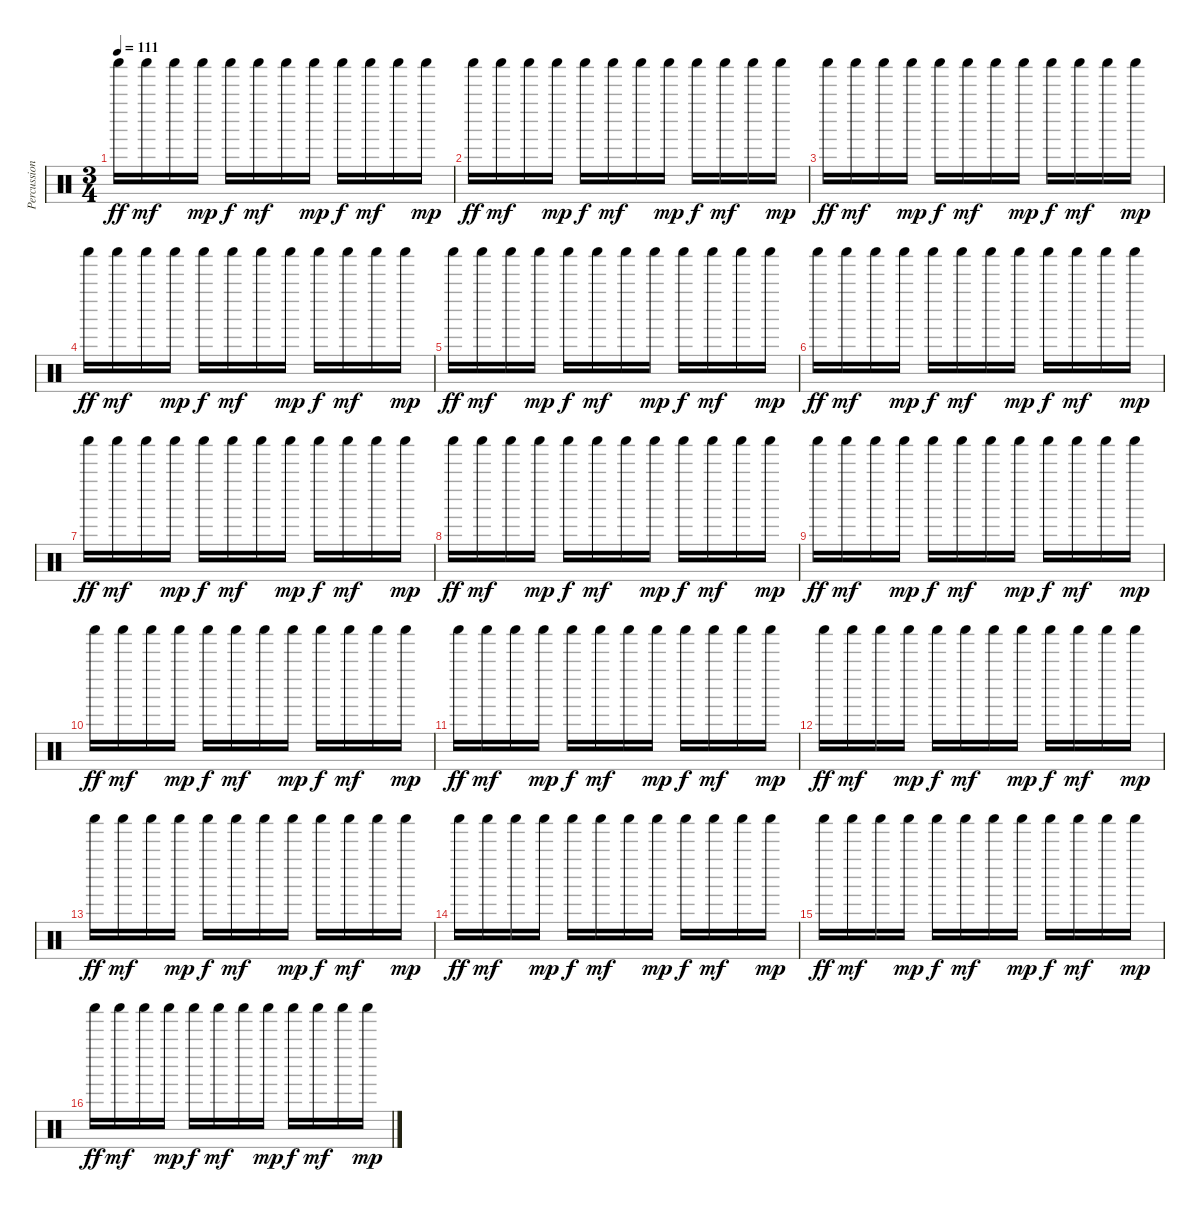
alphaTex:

\track ("Percussion 2" "Percussion") {instrument percussion}
\staff {score}
\articulation defaults
\ts (3 4)
\tempo 111
\clef neutral
\ks c "Shaker (hit)".16{dy ff} "Shaker (hit)".16{dy mf} "Shaker (hit)".16 "Shaker (hit)".16{dy mp} "Shaker (hit)".16{dy f} "Shaker (hit)".16{dy mf} "Shaker (hit)".16 "Shaker (hit)".16{dy mp} "Shaker (hit)".16{dy f} "Shaker (hit)".16{dy mf} "Shaker (hit)".16 "Shaker (hit)".16{dy mp}
|
"Shaker (hit)".16{dy ff} "Shaker (hit)".16{dy mf} "Shaker (hit)".16 "Shaker (hit)".16{dy mp} "Shaker (hit)".16{dy f} "Shaker (hit)".16{dy mf} "Shaker (hit)".16 "Shaker (hit)".16{dy mp} "Shaker (hit)".16{dy f} "Shaker (hit)".16{dy mf} "Shaker (hit)".16 "Shaker (hit)".16{dy mp} |
"Shaker (hit)".16{dy ff} "Shaker (hit)".16{dy mf} "Shaker (hit)".16 "Shaker (hit)".16{dy mp} "Shaker (hit)".16{dy f} "Shaker (hit)".16{dy mf} "Shaker (hit)".16 "Shaker (hit)".16{dy mp} "Shaker (hit)".16{dy f} "Shaker (hit)".16{dy mf} "Shaker (hit)".16 "Shaker (hit)".16{dy mp} |
"Shaker (hit)".16{dy ff} "Shaker (hit)".16{dy mf} "Shaker (hit)".16 "Shaker (hit)".16{dy mp} "Shaker (hit)".16{dy f} "Shaker (hit)".16{dy mf} "Shaker (hit)".16 "Shaker (hit)".16{dy mp} "Shaker (hit)".16{dy f} "Shaker (hit)".16{dy mf} "Shaker (hit)".16 "Shaker (hit)".16{dy mp} |
"Shaker (hit)".16{dy ff} "Shaker (hit)".16{dy mf} "Shaker (hit)".16 "Shaker (hit)".16{dy mp} "Shaker (hit)".16{dy f} "Shaker (hit)".16{dy mf} "Shaker (hit)".16 "Shaker (hit)".16{dy mp} "Shaker (hit)".16{dy f} "Shaker (hit)".16{dy mf} "Shaker (hit)".16 "Shaker (hit)".16{dy mp} |
"Shaker (hit)".16{dy ff} "Shaker (hit)".16{dy mf} "Shaker (hit)".16 "Shaker (hit)".16{dy mp} "Shaker (hit)".16{dy f} "Shaker (hit)".16{dy mf} "Shaker (hit)".16 "Shaker (hit)".16{dy mp} "Shaker (hit)".16{dy f} "Shaker (hit)".16{dy mf} "Shaker (hit)".16 "Shaker (hit)".16{dy mp} |
"Shaker (hit)".16{dy ff} "Shaker (hit)".16{dy mf} "Shaker (hit)".16 "Shaker (hit)".16{dy mp} "Shaker (hit)".16{dy f} "Shaker (hit)".16{dy mf} "Shaker (hit)".16 "Shaker (hit)".16{dy mp} "Shaker (hit)".16{dy f} "Shaker (hit)".16{dy mf} "Shaker (hit)".16 "Shaker (hit)".16{dy mp} |
"Shaker (hit)".16{dy ff} "Shaker (hit)".16{dy mf} "Shaker (hit)".16 "Shaker (hit)".16{dy mp} "Shaker (hit)".16{dy f} "Shaker (hit)".16{dy mf} "Shaker (hit)".16 "Shaker (hit)".16{dy mp} "Shaker (hit)".16{dy f} "Shaker (hit)".16{dy mf} "Shaker (hit)".16 "Shaker (hit)".16{dy mp} |
"Shaker (hit)".16{dy ff} "Shaker (hit)".16{dy mf} "Shaker (hit)".16 "Shaker (hit)".16{dy mp} "Shaker (hit)".16{dy f} "Shaker (hit)".16{dy mf} "Shaker (hit)".16 "Shaker (hit)".16{dy mp} "Shaker (hit)".16{dy f} "Shaker (hit)".16{dy mf} "Shaker (hit)".16 "Shaker (hit)".16{dy mp} |
"Shaker (hit)".16{dy ff} "Shaker (hit)".16{dy mf} "Shaker (hit)".16 "Shaker (hit)".16{dy mp} "Shaker (hit)".16{dy f} "Shaker (hit)".16{dy mf} "Shaker (hit)".16 "Shaker (hit)".16{dy mp} "Shaker (hit)".16{dy f} "Shaker (hit)".16{dy mf} "Shaker (hit)".16 "Shaker (hit)".16{dy mp} |
"Shaker (hit)".16{dy ff} "Shaker (hit)".16{dy mf} "Shaker (hit)".16 "Shaker (hit)".16{dy mp} "Shaker (hit)".16{dy f} "Shaker (hit)".16{dy mf} "Shaker (hit)".16 "Shaker (hit)".16{dy mp} "Shaker (hit)".16{dy f} "Shaker (hit)".16{dy mf} "Shaker (hit)".16 "Shaker (hit)".16{dy mp} |
"Shaker (hit)".16{dy ff} "Shaker (hit)".16{dy mf} "Shaker (hit)".16 "Shaker (hit)".16{dy mp} "Shaker (hit)".16{dy f} "Shaker (hit)".16{dy mf} "Shaker (hit)".16 "Shaker (hit)".16{dy mp} "Shaker (hit)".16{dy f} "Shaker (hit)".16{dy mf} "Shaker (hit)".16 "Shaker (hit)".16{dy mp} |
"Shaker (hit)".16{dy ff} "Shaker (hit)".16{dy mf} "Shaker (hit)".16 "Shaker (hit)".16{dy mp} "Shaker (hit)".16{dy f} "Shaker (hit)".16{dy mf} "Shaker (hit)".16 "Shaker (hit)".16{dy mp} "Shaker (hit)".16{dy f} "Shaker (hit)".16{dy mf} "Shaker (hit)".16 "Shaker (hit)".16{dy mp} |
"Shaker (hit)".16{dy ff} "Shaker (hit)".16{dy mf} "Shaker (hit)".16 "Shaker (hit)".16{dy mp} "Shaker (hit)".16{dy f} "Shaker (hit)".16{dy mf} "Shaker (hit)".16 "Shaker (hit)".16{dy mp} "Shaker (hit)".16{dy f} "Shaker (hit)".16{dy mf} "Shaker (hit)".16 "Shaker (hit)".16{dy mp} |
"Shaker (hit)".16{dy ff} "Shaker (hit)".16{dy mf} "Shaker (hit)".16 "Shaker (hit)".16{dy mp} "Shaker (hit)".16{dy f} "Shaker (hit)".16{dy mf} "Shaker (hit)".16 "Shaker (hit)".16{dy mp} "Shaker (hit)".16{dy f} "Shaker (hit)".16{dy mf} "Shaker (hit)".16 "Shaker (hit)".16{dy mp} |
"Shaker (hit)".16{dy ff} "Shaker (hit)".16{dy mf} "Shaker (hit)".16 "Shaker (hit)".16{dy mp} "Shaker (hit)".16{dy f} "Shaker (hit)".16{dy mf} "Shaker (hit)".16 "Shaker (hit)".16{dy mp} "Shaker (hit)".16{dy f} "Shaker (hit)".16{dy mf} "Shaker (hit)".16 "Shaker (hit)".16{dy mp}
